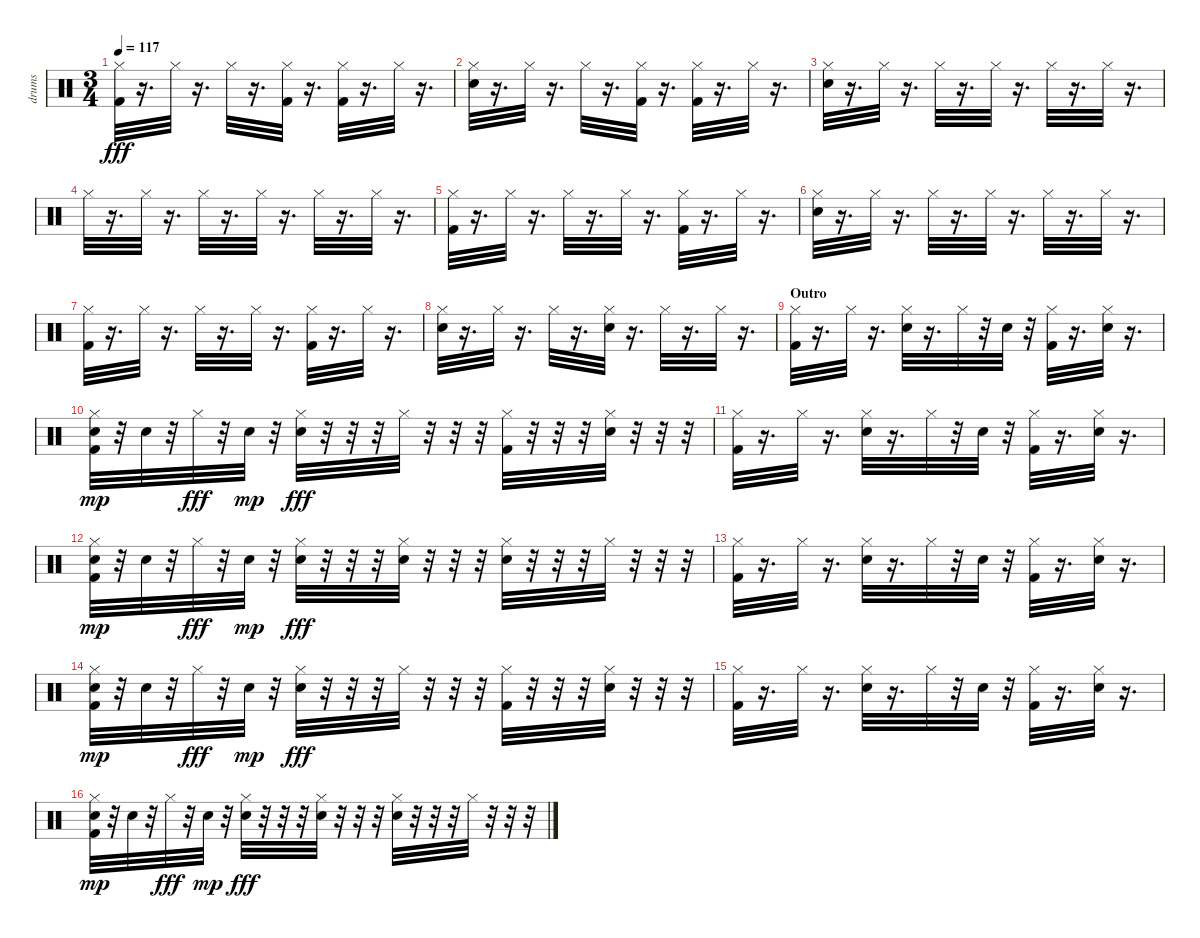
\track ("drums" "drums") {instrument percussion}
\staff {score}
\articulation defaults
\ts (3 4)
\tempo 117
\clef neutral
\ks c
("Kick (hit) 2" "Hi-Hat (closed)").32{dy fff} r.16{d} "Hi-Hat (closed)".32 r.16{d} "Hi-Hat (closed)".32 r.16{d} ("Hi-Hat (closed)" "Kick (hit) 2").32 r.16{d} ("Kick (hit) 2" "Hi-Hat (closed)").32 r.16{d} "Hi-Hat (closed)".32 r.16{d} |
("Electric Snare (hit)" "Hi-Hat (closed)").32 r.16{d} "Hi-Hat (closed)".32 r.16{d} "Hi-Hat (closed)".32 r.16{d} ("Hi-Hat (closed)" "Kick (hit) 2").32 r.16{d} ("Kick (hit) 2" "Hi-Hat (closed)").32 r.16{d} "Hi-Hat (closed)".32 r.16{d} |
("Hi-Hat (closed)" "Electric Snare (hit)").32 r.16{d} "Hi-Hat (closed)".32 r.16{d} "Hi-Hat (closed)".32 r.16{d} "Hi-Hat (closed)".32 r.16{d} "Hi-Hat (closed)".32 r.16{d} "Hi-Hat (closed)".32 r.16{d} |
"Hi-Hat (closed)".32 r.16{d} "Hi-Hat (closed)".32 r.16{d} "Hi-Hat (closed)".32 r.16{d} "Hi-Hat (closed)".32 r.16{d} "Hi-Hat (closed)".32 r.16{d} "Hi-Hat (closed)".32 r.16{d} |
("Hi-Hat (closed)" "Kick (hit) 2").32 r.16{d} "Hi-Hat (closed)".32 r.16{d} "Hi-Hat (closed)".32 r.16{d} "Hi-Hat (closed)".32 r.16{d} ("Kick (hit) 2" "Hi-Hat (closed)").32 r.16{d} "Hi-Hat (closed)".32 r.16{d} |
("Hi-Hat (closed)" "Electric Snare (hit)").32 r.16{d} "Hi-Hat (closed)".32 r.16{d} "Hi-Hat (closed)".32 r.16{d} "Hi-Hat (closed)".32 r.16{d} "Hi-Hat (closed)".32 r.16{d} "Hi-Hat (closed)".32 r.16{d} |
("Hi-Hat (closed)" "Kick (hit) 2").32 r.16{d} "Hi-Hat (closed)".32 r.16{d} "Hi-Hat (closed)".32 r.16{d} "Hi-Hat (closed)".32 r.16{d} ("Kick (hit) 2" "Hi-Hat (closed)").32 r.16{d} "Hi-Hat (closed)".32 r.16{d} |
("Hi-Hat (closed)" "Electric Snare (hit)").32 r.16{d} "Hi-Hat (closed)".32 r.16{d} "Hi-Hat (closed)".32 r.16{d} ("Hi-Hat (closed)" "Electric Snare (hit)").32 r.16{d} "Hi-Hat (closed)".32 r.16{d} "Hi-Hat (closed)".32 r.16{d} |
\section ("" "Outro")
("Hi-Hat (closed)" "Kick (hit) 2").32 r.16{d} "Hi-Hat (closed)".32 r.16{d} ("Electric Snare (hit)" "Hi-Hat (closed)").32 r.16{d} "Hi-Hat (closed)".32 r.32 "Electric Snare (hit)".32 r.32 ("Hi-Hat (closed)" "Kick (hit) 2").32 r.16{d} ("Electric Snare (hit)" "Hi-Hat (closed)").32 r.16{d} |
("Hi-Hat (closed)" "Kick (hit) 2" "Electric Snare (hit)").32{dy mp} r.32 "Electric Snare (hit)".32 r.32 "Hi-Hat (closed)".32{dy fff} r.32 "Electric Snare (hit)".32{dy mp} r.32 ("Electric Snare (hit)" "Hi-Hat (closed)").32{dy fff} r.32 r.32 r.32 "Hi-Hat (closed)".32 r.32 r.32 r.32 ("Hi-Hat (closed)" "Kick (hit) 2").32 r.32 r.32 r.32 ("Electric Snare (hit)" "Hi-Hat (closed)").32 r.32 r.32 r.32 |
("Hi-Hat (closed)" "Kick (hit) 2").32 r.16{d} "Hi-Hat (closed)".32 r.16{d} ("Electric Snare (hit)" "Hi-Hat (closed)").32 r.16{d} "Hi-Hat (closed)".32 r.32 "Electric Snare (hit)".32 r.32 ("Hi-Hat (closed)" "Kick (hit) 2").32 r.16{d} ("Electric Snare (hit)" "Hi-Hat (closed)").32 r.16{d} |
("Hi-Hat (closed)" "Kick (hit) 2" "Electric Snare (hit)").32{dy mp} r.32 "Electric Snare (hit)".32 r.32 "Hi-Hat (closed)".32{dy fff} r.32 "Electric Snare (hit)".32{dy mp} r.32 ("Electric Snare (hit)" "Hi-Hat (closed)").32{dy fff} r.32 r.32 r.32 ("Hi-Hat (closed)" "Electric Snare (hit)").32 r.32 r.32 r.32 ("Hi-Hat (closed)" "Electric Snare (hit)").32 r.32 r.32 r.32 "Hi-Hat (closed)".32 r.32 r.32 r.32 |
("Hi-Hat (closed)" "Kick (hit) 2").32 r.16{d} "Hi-Hat (closed)".32 r.16{d} ("Electric Snare (hit)" "Hi-Hat (closed)").32 r.16{d} "Hi-Hat (closed)".32 r.32 "Electric Snare (hit)".32 r.32 ("Hi-Hat (closed)" "Kick (hit) 2").32 r.16{d} ("Electric Snare (hit)" "Hi-Hat (closed)").32 r.16{d} |
("Hi-Hat (closed)" "Kick (hit) 2" "Electric Snare (hit)").32{dy mp} r.32 "Electric Snare (hit)".32 r.32 "Hi-Hat (closed)".32{dy fff} r.32 "Electric Snare (hit)".32{dy mp} r.32 ("Electric Snare (hit)" "Hi-Hat (closed)").32{dy fff} r.32 r.32 r.32 "Hi-Hat (closed)".32 r.32 r.32 r.32 ("Hi-Hat (closed)" "Kick (hit) 2").32 r.32 r.32 r.32 ("Electric Snare (hit)" "Hi-Hat (closed)").32 r.32 r.32 r.32 |
("Hi-Hat (closed)" "Kick (hit) 2").32 r.16{d} "Hi-Hat (closed)".32 r.16{d} ("Electric Snare (hit)" "Hi-Hat (closed)").32 r.16{d} "Hi-Hat (closed)".32 r.32 "Electric Snare (hit)".32 r.32 ("Hi-Hat (closed)" "Kick (hit) 2").32 r.16{d} ("Electric Snare (hit)" "Hi-Hat (closed)").32 r.16{d} |
("Hi-Hat (closed)" "Kick (hit) 2" "Electric Snare (hit)").32{dy mp} r.32 "Electric Snare (hit)".32 r.32 "Hi-Hat (closed)".32{dy fff} r.32 "Electric Snare (hit)".32{dy mp} r.32 ("Electric Snare (hit)" "Hi-Hat (closed)").32{dy fff} r.32 r.32 r.32 ("Hi-Hat (closed)" "Electric Snare (hit)").32 r.32 r.32 r.32 ("Hi-Hat (closed)" "Electric Snare (hit)").32 r.32 r.32 r.32 "Hi-Hat (closed)".32 r.32 r.32 r.32
